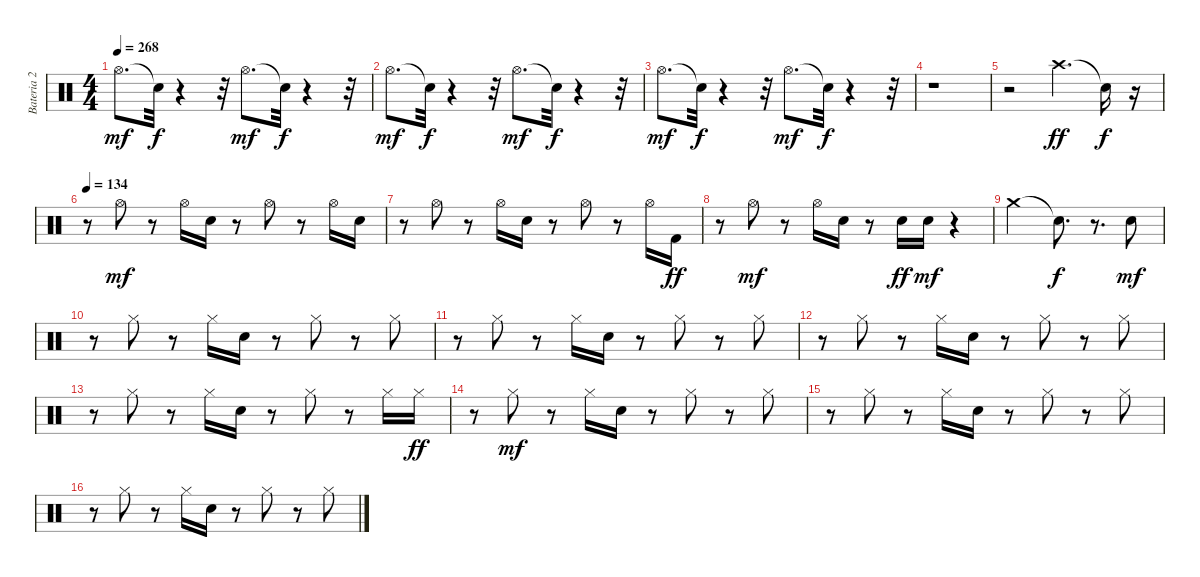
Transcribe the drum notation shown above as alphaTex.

\track ("Bateria 2" "Bateria 2") {instrument percussion}
\staff {score}
\articulation defaults
\ts (4 4)
\tempo 268
\clef neutral
\ks c "Hi-Hat (open)".8{d dy mf} "Snare (hit)"{t}.32{dy f}
r.4 r.32 "Hi-Hat (open)".8{d dy mf} "Snare (hit)"{t}.32{dy f} r.4 r.32 |
"Hi-Hat (open)".8{d dy mf} "Snare (hit)"{t}.32{dy f} r.4 r.32 "Hi-Hat (open)".8{d dy mf} "Snare (hit)"{t}.32{dy f} r.4 r.32 |
"Hi-Hat (open)".8{d dy mf} "Snare (hit)"{t}.32{dy f} r.4 r.32 "Hi-Hat (open)".8{d dy mf} "Snare (hit)"{t}.32{dy f} r.4 r.32 |
r.1 |
r.2 "Crash high (hit)".4{d dy ff} "Snare (hit)"{t}.16{dy f} r.16 |
\tempo 134
r.8 "Hi-Hat (open)".8{dy mf} r.8 "Hi-Hat (open)".16 "Electric Snare (hit)".16 r.8 "Hi-Hat (open)".8 r.8 "Hi-Hat (open)".16 "Electric Snare (hit)".16 |
r.8 "Hi-Hat (open)".8 r.8 "Hi-Hat (open)".16 "Electric Snare (hit)".16 r.8 "Hi-Hat (open)".8 r.8 "Hi-Hat (open)".16 "Kick (hit) 2".16{dy ff} |
r.8 "Hi-Hat (open)".8{dy mf} r.8 "Hi-Hat (open)".16 "Electric Snare (hit)".16 r.8 "Electric Snare (hit)".16{dy ff} "Electric Snare (hit)".16{dy mf} r.4 |
"Crash medium (hit)".2 "Snare (hit)"{t}.8{d dy f} r.8{d} "Electric Snare (hit)".8{dy mf} |
r.8 "Hi-Hat (closed)".8 r.8 "Hi-Hat (closed)".16 "Electric Snare (hit)".16 r.8 "Hi-Hat (closed)".8 r.8 "Hi-Hat (closed)".8 |
r.8 "Hi-Hat (closed)".8 r.8 "Hi-Hat (closed)".16 "Electric Snare (hit)".16 r.8 "Hi-Hat (closed)".8 r.8 "Hi-Hat (closed)".8 |
r.8 "Hi-Hat (closed)".8 r.8 "Hi-Hat (closed)".16 "Electric Snare (hit)".16 r.8 "Hi-Hat (closed)".8 r.8 "Hi-Hat (closed)".8 |
r.8 "Hi-Hat (closed)".8 r.8 "Hi-Hat (closed)".16 "Electric Snare (hit)".16 r.8 "Hi-Hat (closed)".8 r.8 "Hi-Hat (closed)".16 "Hi-Hat (closed)".16{dy ff} |
r.8 "Hi-Hat (closed)".8{dy mf} r.8 "Hi-Hat (closed)".16 "Electric Snare (hit)".16 r.8 "Hi-Hat (closed)".8 r.8 "Hi-Hat (closed)".8 |
r.8 "Hi-Hat (closed)".8 r.8 "Hi-Hat (closed)".16 "Electric Snare (hit)".16 r.8 "Hi-Hat (closed)".8 r.8 "Hi-Hat (closed)".8 |
r.8 "Hi-Hat (closed)".8 r.8 "Hi-Hat (closed)".16 "Electric Snare (hit)".16 r.8 "Hi-Hat (closed)".8 r.8 "Hi-Hat (closed)".8
